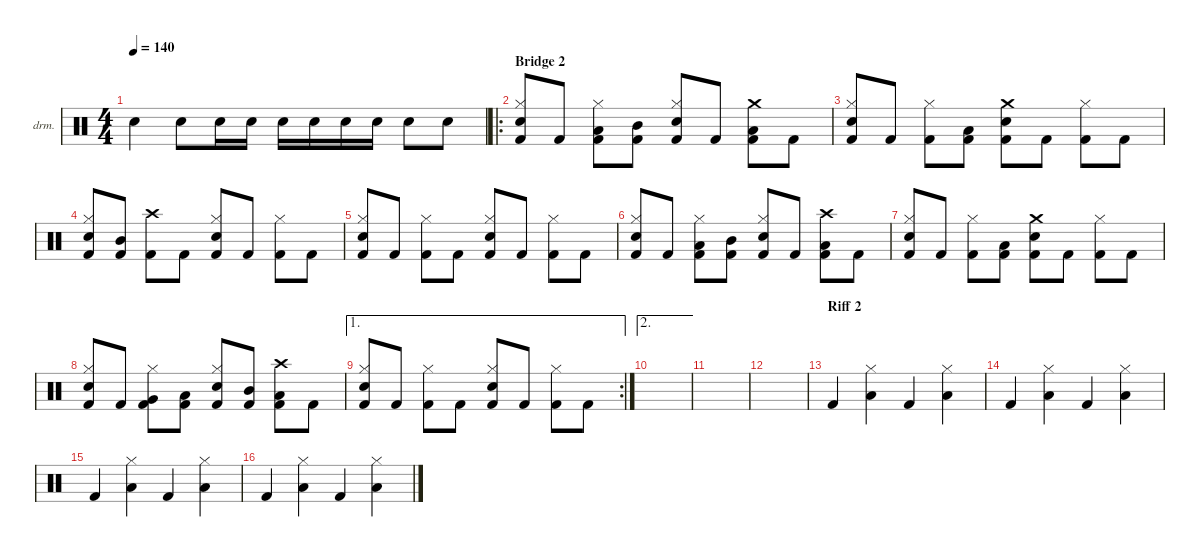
\defaultSystemsLayout 4
\hideDynamics
\bracketExtendMode nobrackets
\firstSystemTrackNameOrientation horizontal
\otherSystemsTrackNameOrientation horizontal
\track ("Drumkit" "drm.") {instrument percussion}
\staff {score}
\articulation defaults
\ts (4 4)
\tempo 140
\clef neutral
\ks c "Snare (hit) 2".4{dy mf} "Snare (hit) 2".8 "Snare (hit) 2".16 "Snare (hit) 2".16 "Snare (hit) 2".16 "Snare (hit) 2".16 "Snare (hit) 2".16 "Snare (hit) 2".16 "Snare (hit) 2".8 "Snare (hit) 2".8
|
\ro
\section ("" "Bridge 2")
("Hi-Hat (closed)" "Kick (hit) 2" "Snare (hit) 2").8 "Kick (hit) 2".8 ("Kick (hit) 2" "Hi-Hat (closed)" "Low Tom (hit)").8 ("Kick (hit) 2" "Mid Tom (hit)").8 ("Kick (hit) 2" "Hi-Hat (closed)" "Snare (hit) 2").8 "Kick (hit) 2".8 ("Kick (hit) 2" "Low Tom (hit)" "Crash medium (hit)").8 "Kick (hit) 2".8 |
("Hi-Hat (closed)" "Kick (hit) 2" "Snare (hit) 2").8 "Kick (hit) 2".8 ("Kick (hit) 2" "Hi-Hat (closed)").8 ("Kick (hit) 2" "Low Tom (hit)").8 ("Kick (hit) 2" "Snare (hit) 2" "Crash medium (hit)").8 "Kick (hit) 2".8 ("Kick (hit) 2" "Hi-Hat (closed)").8 "Kick (hit) 2".8 |
("Hi-Hat (closed)" "Kick (hit) 2" "Snare (hit) 2").8 ("Kick (hit) 2" "Mid Tom (hit)").8 ("Kick (hit) 2" "Crash high (hit)").8 "Kick (hit) 2".8 ("Kick (hit) 2" "Hi-Hat (closed)" "Snare (hit) 2").8 "Kick (hit) 2".8 ("Kick (hit) 2" "Hi-Hat (closed)").8 "Kick (hit) 2".8 |
("Hi-Hat (closed)" "Kick (hit) 2" "Snare (hit) 2").8 "Kick (hit) 2".8 ("Kick (hit) 2" "Hi-Hat (closed)").8 "Kick (hit) 2".8 ("Kick (hit) 2" "Hi-Hat (closed)" "Snare (hit) 2").8 "Kick (hit) 2".8 ("Kick (hit) 2" "Hi-Hat (closed)").8 "Kick (hit) 2".8 |
("Hi-Hat (closed)" "Kick (hit) 2" "Snare (hit) 2").8 "Kick (hit) 2".8 ("Kick (hit) 2" "Hi-Hat (closed)" "Low Tom (hit)").8 ("Kick (hit) 2" "Mid Tom (hit)").8 ("Kick (hit) 2" "Hi-Hat (closed)" "Snare (hit) 2").8 "Kick (hit) 2".8 ("Kick (hit) 2" "Crash high (hit)" "Low Tom (hit)").8 "Kick (hit) 2".8 |
("Hi-Hat (closed)" "Kick (hit) 2" "Snare (hit) 2").8 "Kick (hit) 2".8 ("Kick (hit) 2" "Hi-Hat (closed)").8 ("Kick (hit) 2" "Low Tom (hit)").8 ("Kick (hit) 2" "Snare (hit) 2" "Crash medium (hit)").8 "Kick (hit) 2".8 ("Kick (hit) 2" "Hi-Hat (closed)").8 "Kick (hit) 2".8 |
("Hi-Hat (closed)" "Kick (hit) 2" "Snare (hit) 2").8 "Kick (hit) 2".8 ("Kick (hit) 2" "Hi-Hat (closed)" "Very Low Tom (hit)").8 ("Kick (hit) 2" "Low Tom (hit)").8 ("Kick (hit) 2" "Snare (hit) 2" "Hi-Hat (closed)").8 ("Kick (hit) 2" "Mid Tom (hit)").8 ("Kick (hit) 2" "Low Tom (hit)" "Crash high (hit)").8 "Kick (hit) 2".8 |
\ae 1
\rc 2
("Kick (hit) 2" "Snare (hit) 2" "Hi-Hat (closed)").8 "Kick (hit) 2".8 ("Kick (hit) 2" "Hi-Hat (closed)").8 "Kick (hit) 2".8 ("Kick (hit) 2" "Snare (hit) 2" "Hi-Hat (closed)").8 "Kick (hit) 2".8 ("Kick (hit) 2" "Hi-Hat (closed)").8 "Kick (hit) 2".8 |
\ae 2
|
|
|
\section ("" "Riff 2")
"Kick (hit) 2".4 ("Hi-Hat (closed)" "Low Tom (hit)").4 "Kick (hit) 2".4 ("Hi-Hat (closed)" "Low Tom (hit)").4 |
"Kick (hit) 2".4 ("Hi-Hat (closed)" "Low Tom (hit)").4 "Kick (hit) 2".4 ("Hi-Hat (closed)" "Low Tom (hit)").4 |
"Kick (hit) 2".4 ("Hi-Hat (closed)" "Low Tom (hit)").4 "Kick (hit) 2".4 ("Hi-Hat (closed)" "Low Tom (hit)").4 |
"Kick (hit) 2".4 ("Hi-Hat (closed)" "Low Tom (hit)").4 "Kick (hit) 2".4 ("Hi-Hat (closed)" "Low Tom (hit)").4
